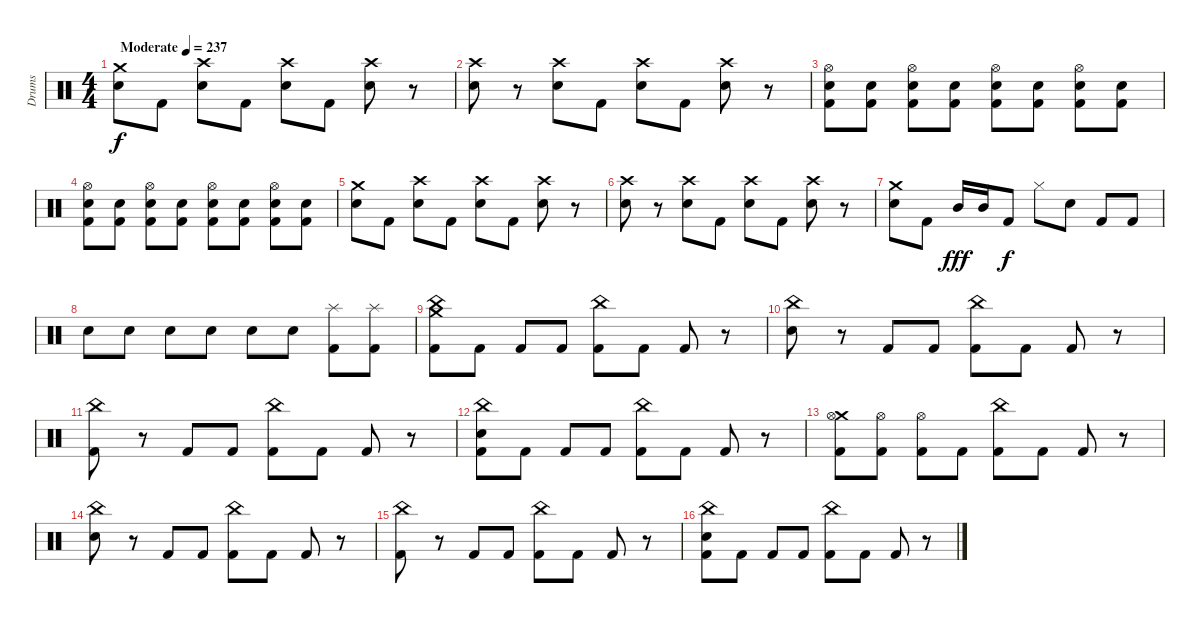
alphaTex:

\track ("Drums" "Drums") {instrument percussion}
\staff {score}
\articulation defaults
\ts (4 4)
\tempo (237 "Moderate")
\clef neutral
\ks c
("Crash medium (hit)" "Electric Snare (hit)").8{dy f} "Kick (hit) 2".8 ("Crash high (hit)" "Electric Snare (hit)").8 "Kick (hit) 2".8 ("Crash high (hit)" "Electric Snare (hit)").8 "Kick (hit) 2".8 ("Crash high (hit)" "Electric Snare (hit)").8 r.8 |
("Crash high (hit)" "Electric Snare (hit)").8 r.8 ("Crash high (hit)" "Electric Snare (hit)").8 "Kick (hit) 2".8 ("Crash high (hit)" "Electric Snare (hit)").8 "Kick (hit) 2".8 ("Crash high (hit)" "Electric Snare (hit)").8 r.8 |
("Hi-Hat (open)" "Electric Snare (hit)" "Kick (hit) 2").8 ("Electric Snare (hit)" "Kick (hit) 2").8 ("Hi-Hat (open)" "Electric Snare (hit)" "Kick (hit) 2").8 ("Electric Snare (hit)" "Kick (hit) 2").8 ("Hi-Hat (open)" "Electric Snare (hit)" "Kick (hit) 2").8 ("Electric Snare (hit)" "Kick (hit) 2").8 ("Hi-Hat (open)" "Electric Snare (hit)" "Kick (hit) 2").8 ("Electric Snare (hit)" "Kick (hit) 2").8 |
("Hi-Hat (open)" "Electric Snare (hit)" "Kick (hit) 2").8 ("Electric Snare (hit)" "Kick (hit) 2").8 ("Hi-Hat (open)" "Electric Snare (hit)" "Kick (hit) 2").8 ("Electric Snare (hit)" "Kick (hit) 2").8 ("Hi-Hat (open)" "Electric Snare (hit)" "Kick (hit) 2").8 ("Electric Snare (hit)" "Kick (hit) 2").8 ("Hi-Hat (open)" "Electric Snare (hit)" "Kick (hit) 2").8 ("Electric Snare (hit)" "Kick (hit) 2").8 |
("Crash medium (hit)" "Electric Snare (hit)").8 "Kick (hit) 2".8 ("Crash high (hit)" "Electric Snare (hit)").8 "Kick (hit) 2".8 ("Crash high (hit)" "Electric Snare (hit)").8 "Kick (hit) 2".8 ("Crash high (hit)" "Electric Snare (hit)").8 r.8 |
("Crash high (hit)" "Electric Snare (hit)").8 r.8 ("Crash high (hit)" "Electric Snare (hit)").8 "Kick (hit) 2".8 ("Crash high (hit)" "Electric Snare (hit)").8 "Kick (hit) 2".8 ("Crash high (hit)" "Electric Snare (hit)").8 r.8 |
("Crash medium (hit)" "Electric Snare (hit)").8 "Kick (hit) 2".8 "Mid Tom (hit)".16{dy fff} "Mid Tom (hit)".16 "Kick (hit) 2".8{dy f} "Hi-Hat (closed)".8 "Electric Snare (hit)".8 "Kick (hit) 2".8 "Kick (hit) 2".8 |
"Electric Snare (hit)".8 "Electric Snare (hit)".8 "Electric Snare (hit)".8 "Electric Snare (hit)".8 "Electric Snare (hit)".8 "Electric Snare (hit)".8 ("Splash (hit)" "Kick (hit) 2").8 ("Splash (hit)" "Kick (hit) 2").8 |
("Crash medium (hit)" "China (hit)" "Kick (hit) 2").8 "Kick (hit) 2".8 "Kick (hit) 2".8 "Kick (hit) 2".8 ("China (hit)" "Kick (hit) 2").8 "Kick (hit) 2".8 "Kick (hit) 2".8 r.8 |
("China (hit)" "Electric Snare (hit)").8 r.8 "Kick (hit) 2".8 "Kick (hit) 2".8 ("China (hit)" "Kick (hit) 2").8 "Kick (hit) 2".8 "Kick (hit) 2".8 r.8 |
("China (hit)" "Kick (hit) 2").8 r.8 "Kick (hit) 2".8 "Kick (hit) 2".8 ("China (hit)" "Kick (hit) 2").8 "Kick (hit) 2".8 "Kick (hit) 2".8 r.8 |
("China (hit)" "Electric Snare (hit)" "Kick (hit) 2").8 "Kick (hit) 2".8 "Kick (hit) 2".8 "Kick (hit) 2".8 ("China (hit)" "Kick (hit) 2").8 "Kick (hit) 2".8 "Kick (hit) 2".8 r.8 |
("Crash medium (hit)" "Hi-Hat (open)" "Kick (hit) 2").8 ("Hi-Hat (open)" "Kick (hit) 2").8 ("Hi-Hat (open)" "Kick (hit) 2").8 "Kick (hit) 2".8 ("China (hit)" "Kick (hit) 2").8 "Kick (hit) 2".8 "Kick (hit) 2".8 r.8 |
("China (hit)" "Electric Snare (hit)").8 r.8 "Kick (hit) 2".8 "Kick (hit) 2".8 ("China (hit)" "Kick (hit) 2").8 "Kick (hit) 2".8 "Kick (hit) 2".8 r.8 |
("China (hit)" "Kick (hit) 2").8 r.8 "Kick (hit) 2".8 "Kick (hit) 2".8 ("China (hit)" "Kick (hit) 2").8 "Kick (hit) 2".8 "Kick (hit) 2".8 r.8 |
("China (hit)" "Electric Snare (hit)" "Kick (hit) 2").8 "Kick (hit) 2".8 "Kick (hit) 2".8 "Kick (hit) 2".8 ("China (hit)" "Kick (hit) 2").8 "Kick (hit) 2".8 "Kick (hit) 2".8 r.8
